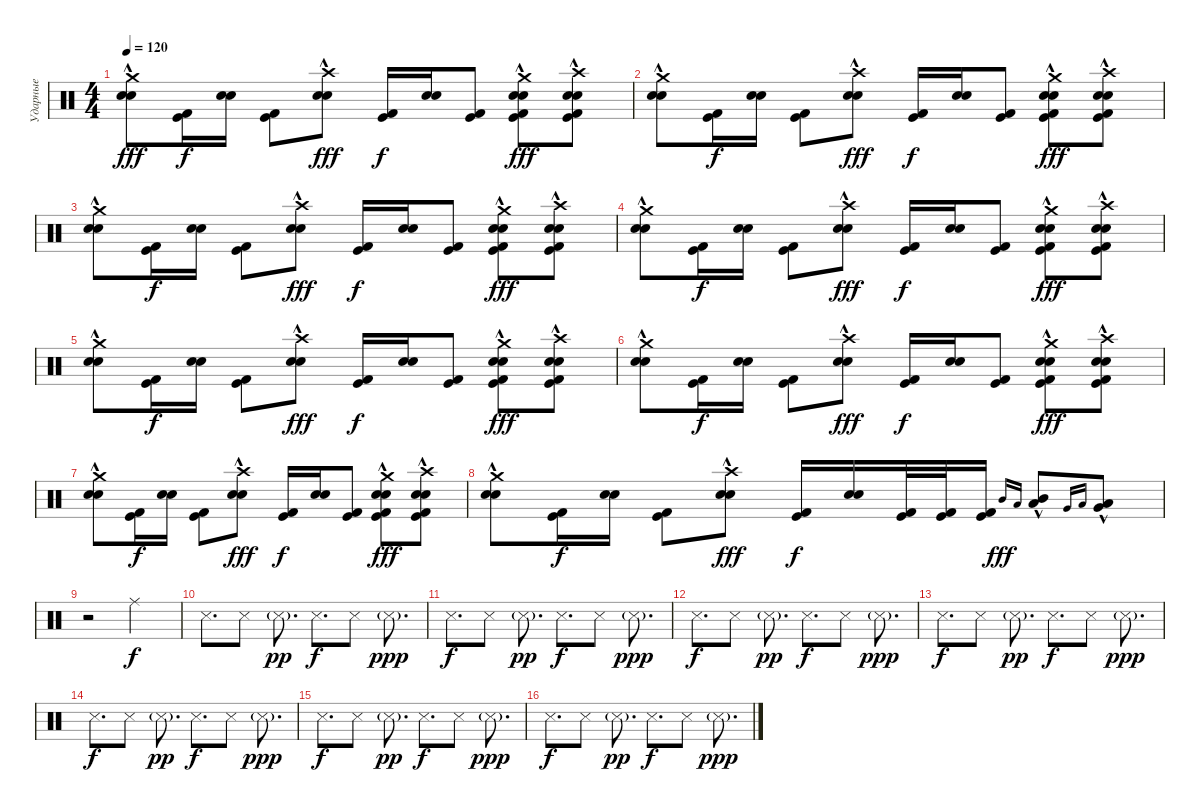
\track ("Ударные" "Ударные") {instrument percussion}
\staff {score}
\articulation defaults
\ts (4 4)
\tempo 120
\clef neutral
\ks c
("Crash medium (hit)" "Snare (hit) 2"{hac} "Electric Snare (hit)"{hac}).8{dy fff} ("Kick (hit)" "Kick (hit) 2").16{dy f} ("Snare (hit) 2" "Electric Snare (hit)").16 ("Kick (hit)" "Kick (hit) 2").8 ("Crash high (hit)" "Snare (hit) 2"{hac} "Electric Snare (hit)"{hac}).8{dy fff} ("Kick (hit)" "Kick (hit) 2").16{dy f} ("Snare (hit) 2" "Electric Snare (hit)").16 ("Kick (hit)" "Kick (hit) 2").8 ("Crash medium (hit)" "Kick (hit)" "Kick (hit) 2" "Snare (hit) 2"{hac} "Electric Snare (hit)"{hac}).8{dy fff} ("Crash high (hit)" "Kick (hit)" "Kick (hit) 2" "Snare (hit) 2"{hac} "Electric Snare (hit)"{hac}).8 |
("Crash medium (hit)" "Snare (hit) 2"{hac} "Electric Snare (hit)"{hac}).8 ("Kick (hit)" "Kick (hit) 2").16{dy f} ("Snare (hit) 2" "Electric Snare (hit)").16 ("Kick (hit)" "Kick (hit) 2").8 ("Crash high (hit)" "Snare (hit) 2"{hac} "Electric Snare (hit)"{hac}).8{dy fff} ("Kick (hit)" "Kick (hit) 2").16{dy f} ("Snare (hit) 2" "Electric Snare (hit)").16 ("Kick (hit)" "Kick (hit) 2").8 ("Crash medium (hit)" "Kick (hit)" "Kick (hit) 2" "Snare (hit) 2"{hac} "Electric Snare (hit)"{hac}).8{dy fff} ("Crash high (hit)" "Kick (hit)" "Kick (hit) 2" "Snare (hit) 2"{hac} "Electric Snare (hit)"{hac}).8 |
("Crash medium (hit)" "Snare (hit) 2"{hac} "Electric Snare (hit)"{hac}).8 ("Kick (hit)" "Kick (hit) 2").16{dy f} ("Snare (hit) 2" "Electric Snare (hit)").16 ("Kick (hit)" "Kick (hit) 2").8 ("Crash high (hit)" "Snare (hit) 2"{hac} "Electric Snare (hit)"{hac}).8{dy fff} ("Kick (hit)" "Kick (hit) 2").16{dy f} ("Snare (hit) 2" "Electric Snare (hit)").16 ("Kick (hit)" "Kick (hit) 2").8 ("Crash medium (hit)" "Kick (hit)" "Kick (hit) 2" "Snare (hit) 2"{hac} "Electric Snare (hit)"{hac}).8{dy fff} ("Crash high (hit)" "Kick (hit)" "Kick (hit) 2" "Snare (hit) 2"{hac} "Electric Snare (hit)"{hac}).8 |
("Crash medium (hit)" "Snare (hit) 2"{hac} "Electric Snare (hit)"{hac}).8 ("Kick (hit)" "Kick (hit) 2").16{dy f} ("Snare (hit) 2" "Electric Snare (hit)").16 ("Kick (hit)" "Kick (hit) 2").8 ("Crash high (hit)" "Snare (hit) 2"{hac} "Electric Snare (hit)"{hac}).8{dy fff} ("Kick (hit)" "Kick (hit) 2").16{dy f} ("Snare (hit) 2" "Electric Snare (hit)").16 ("Kick (hit)" "Kick (hit) 2").8 ("Crash medium (hit)" "Kick (hit)" "Kick (hit) 2" "Snare (hit) 2"{hac} "Electric Snare (hit)"{hac}).8{dy fff} ("Crash high (hit)" "Kick (hit)" "Kick (hit) 2" "Snare (hit) 2"{hac} "Electric Snare (hit)"{hac}).8 |
("Crash medium (hit)" "Snare (hit) 2"{hac} "Electric Snare (hit)"{hac}).8 ("Kick (hit)" "Kick (hit) 2").16{dy f} ("Snare (hit) 2" "Electric Snare (hit)").16 ("Kick (hit)" "Kick (hit) 2").8 ("Crash high (hit)" "Snare (hit) 2"{hac} "Electric Snare (hit)"{hac}).8{dy fff} ("Kick (hit)" "Kick (hit) 2").16{dy f} ("Snare (hit) 2" "Electric Snare (hit)").16 ("Kick (hit)" "Kick (hit) 2").8 ("Crash medium (hit)" "Kick (hit)" "Kick (hit) 2" "Snare (hit) 2"{hac} "Electric Snare (hit)"{hac}).8{dy fff} ("Crash high (hit)" "Kick (hit)" "Kick (hit) 2" "Snare (hit) 2"{hac} "Electric Snare (hit)"{hac}).8 |
("Crash medium (hit)" "Snare (hit) 2"{hac} "Electric Snare (hit)"{hac}).8 ("Kick (hit)" "Kick (hit) 2").16{dy f} ("Snare (hit) 2" "Electric Snare (hit)").16 ("Kick (hit)" "Kick (hit) 2").8 ("Crash high (hit)" "Snare (hit) 2"{hac} "Electric Snare (hit)"{hac}).8{dy fff} ("Kick (hit)" "Kick (hit) 2").16{dy f} ("Snare (hit) 2" "Electric Snare (hit)").16 ("Kick (hit)" "Kick (hit) 2").8 ("Crash medium (hit)" "Kick (hit)" "Kick (hit) 2" "Snare (hit) 2"{hac} "Electric Snare (hit)"{hac}).8{dy fff} ("Crash high (hit)" "Kick (hit)" "Kick (hit) 2" "Snare (hit) 2"{hac} "Electric Snare (hit)"{hac}).8 |
("Crash medium (hit)" "Snare (hit) 2"{hac} "Electric Snare (hit)"{hac}).8 ("Kick (hit)" "Kick (hit) 2").16{dy f} ("Snare (hit) 2" "Electric Snare (hit)").16 ("Kick (hit)" "Kick (hit) 2").8 ("Crash high (hit)" "Snare (hit) 2"{hac} "Electric Snare (hit)"{hac}).8{dy fff} ("Kick (hit)" "Kick (hit) 2").16{dy f} ("Snare (hit) 2" "Electric Snare (hit)").16 ("Kick (hit)" "Kick (hit) 2").8 ("Crash medium (hit)" "Kick (hit)" "Kick (hit) 2" "Snare (hit) 2"{hac} "Electric Snare (hit)"{hac}).8{dy fff} ("Crash high (hit)" "Kick (hit)" "Kick (hit) 2" "Snare (hit) 2"{hac} "Electric Snare (hit)"{hac}).8 |
("Crash medium (hit)" "Snare (hit) 2"{hac} "Electric Snare (hit)"{hac}).8 ("Kick (hit)" "Kick (hit) 2").16{dy f} ("Snare (hit) 2" "Electric Snare (hit)").16 ("Kick (hit)" "Kick (hit) 2").8 ("Crash high (hit)" "Snare (hit) 2"{hac} "Electric Snare (hit)"{hac}).8{dy fff} ("Kick (hit)" "Kick (hit) 2").16{dy f} ("Snare (hit) 2" "Electric Snare (hit)").16 ("Kick (hit)" "Kick (hit) 2").32 ("Kick (hit)" "Kick (hit) 2").32 ("Kick (hit)" "Kick (hit) 2").16 "Mid Tom (hit)".16{gr onbeat dy fff} "Low Tom (hit)".16{gr onbeat} ("Mid Tom (hit)"{hac} "Low Tom (hit)"{hac}).8 "Very Low Tom (hit)".16{gr onbeat} "Low Floor Tom (hit)".16{gr onbeat} ("Very Low Tom (hit)"{hac} "Low Floor Tom (hit)"{hac}).8 |
r.2 "Ride (middle)".2{dy f} |
"Snare (side stick) 3".8{d} "Snare (side stick) 3".8 "Snare (side stick) 3"{g}.8{d dy pp} "Snare (side stick) 3".8{d dy f} "Snare (side stick) 3".8 "Snare (side stick) 3"{g}.8{d dy ppp} |
"Snare (side stick) 3".8{d dy f} "Snare (side stick) 3".8 "Snare (side stick) 3"{g}.8{d dy pp} "Snare (side stick) 3".8{d dy f} "Snare (side stick) 3".8 "Snare (side stick) 3"{g}.8{d dy ppp} |
"Snare (side stick) 3".8{d dy f} "Snare (side stick) 3".8 "Snare (side stick) 3"{g}.8{d dy pp} "Snare (side stick) 3".8{d dy f} "Snare (side stick) 3".8 "Snare (side stick) 3"{g}.8{d dy ppp} |
"Snare (side stick) 3".8{d dy f} "Snare (side stick) 3".8 "Snare (side stick) 3"{g}.8{d dy pp} "Snare (side stick) 3".8{d dy f} "Snare (side stick) 3".8 "Snare (side stick) 3"{g}.8{d dy ppp} |
"Snare (side stick) 3".8{d dy f} "Snare (side stick) 3".8 "Snare (side stick) 3"{g}.8{d dy pp} "Snare (side stick) 3".8{d dy f} "Snare (side stick) 3".8 "Snare (side stick) 3"{g}.8{d dy ppp} |
"Snare (side stick) 3".8{d dy f} "Snare (side stick) 3".8 "Snare (side stick) 3"{g}.8{d dy pp} "Snare (side stick) 3".8{d dy f} "Snare (side stick) 3".8 "Snare (side stick) 3"{g}.8{d dy ppp} |
"Snare (side stick) 3".8{d dy f} "Snare (side stick) 3".8 "Snare (side stick) 3"{g}.8{d dy pp} "Snare (side stick) 3".8{d dy f} "Snare (side stick) 3".8 "Snare (side stick) 3"{g}.8{d dy ppp}
